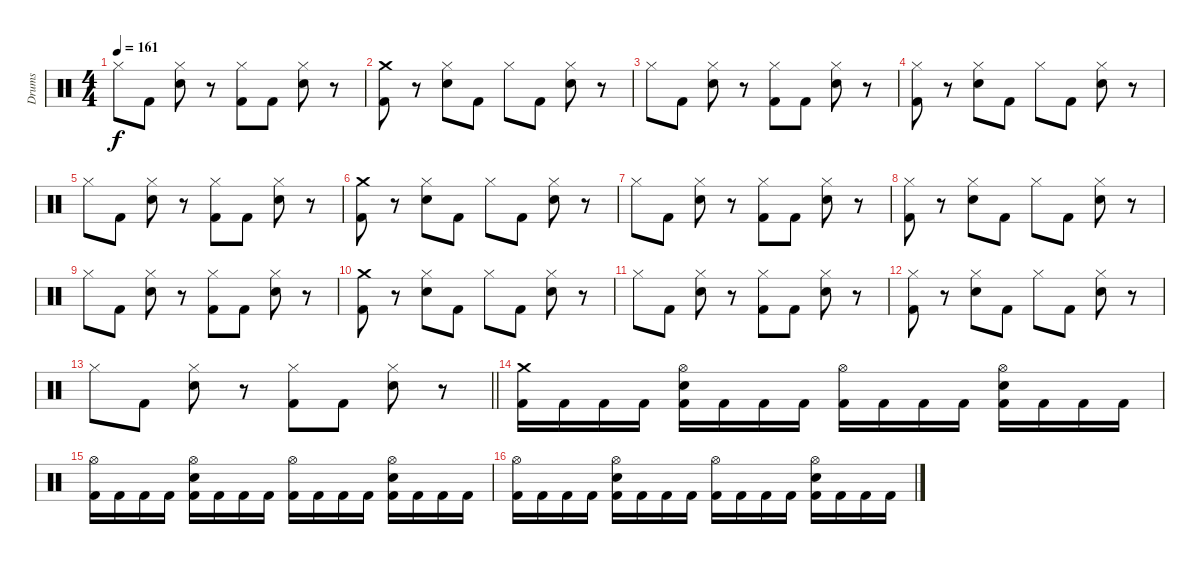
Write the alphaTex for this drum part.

\track ("Drums" "Drums") {instrument percussion}
\staff {score}
\articulation defaults
\ts (4 4)
\tempo 161
\clef neutral
\ks c "Hi-Hat (closed)".8{dy f} "Kick (hit) 2".8
("Hi-Hat (closed)" "Electric Snare (hit)").8 r.8 ("Hi-Hat (closed)" "Kick (hit) 2").8 "Kick (hit) 2".8 ("Hi-Hat (closed)" "Electric Snare (hit)").8 r.8 |
("Crash medium (hit)" "Kick (hit) 2").8 r.8 ("Hi-Hat (closed)" "Electric Snare (hit)").8 "Kick (hit) 2".8 "Hi-Hat (closed)".8 "Kick (hit) 2".8 ("Hi-Hat (closed)" "Electric Snare (hit)").8 r.8 |
"Hi-Hat (closed)".8 "Kick (hit) 2".8 ("Hi-Hat (closed)" "Electric Snare (hit)").8 r.8 ("Hi-Hat (closed)" "Kick (hit) 2").8 "Kick (hit) 2".8 ("Hi-Hat (closed)" "Electric Snare (hit)").8 r.8 |
("Hi-Hat (closed)" "Kick (hit) 2").8 r.8 ("Hi-Hat (closed)" "Electric Snare (hit)").8 "Kick (hit) 2".8 "Hi-Hat (closed)".8 "Kick (hit) 2".8 ("Hi-Hat (closed)" "Electric Snare (hit)").8 r.8 |
"Hi-Hat (closed)".8 "Kick (hit) 2".8 ("Hi-Hat (closed)" "Electric Snare (hit)").8 r.8 ("Hi-Hat (closed)" "Kick (hit) 2").8 "Kick (hit) 2".8 ("Hi-Hat (closed)" "Electric Snare (hit)").8 r.8 |
("Crash medium (hit)" "Kick (hit) 2").8 r.8 ("Hi-Hat (closed)" "Electric Snare (hit)").8 "Kick (hit) 2".8 "Hi-Hat (closed)".8 "Kick (hit) 2".8 ("Hi-Hat (closed)" "Electric Snare (hit)").8 r.8 |
"Hi-Hat (closed)".8 "Kick (hit) 2".8 ("Hi-Hat (closed)" "Electric Snare (hit)").8 r.8 ("Hi-Hat (closed)" "Kick (hit) 2").8 "Kick (hit) 2".8 ("Hi-Hat (closed)" "Electric Snare (hit)").8 r.8 |
("Hi-Hat (closed)" "Kick (hit) 2").8 r.8 ("Hi-Hat (closed)" "Electric Snare (hit)").8 "Kick (hit) 2".8 "Hi-Hat (closed)".8 "Kick (hit) 2".8 ("Hi-Hat (closed)" "Electric Snare (hit)").8 r.8 |
"Hi-Hat (closed)".8 "Kick (hit) 2".8 ("Hi-Hat (closed)" "Electric Snare (hit)").8 r.8 ("Hi-Hat (closed)" "Kick (hit) 2").8 "Kick (hit) 2".8 ("Hi-Hat (closed)" "Electric Snare (hit)").8 r.8 |
("Crash medium (hit)" "Kick (hit) 2").8 r.8 ("Hi-Hat (closed)" "Electric Snare (hit)").8 "Kick (hit) 2".8 "Hi-Hat (closed)".8 "Kick (hit) 2".8 ("Hi-Hat (closed)" "Electric Snare (hit)").8 r.8 |
"Hi-Hat (closed)".8 "Kick (hit) 2".8 ("Hi-Hat (closed)" "Electric Snare (hit)").8 r.8 ("Hi-Hat (closed)" "Kick (hit) 2").8 "Kick (hit) 2".8 ("Hi-Hat (closed)" "Electric Snare (hit)").8 r.8 |
("Hi-Hat (closed)" "Kick (hit) 2").8 r.8 ("Hi-Hat (closed)" "Electric Snare (hit)").8 "Kick (hit) 2".8 "Hi-Hat (closed)".8 "Kick (hit) 2".8 ("Hi-Hat (closed)" "Electric Snare (hit)").8 r.8 |
\barLineRight lightlight "Hi-Hat (closed)".8 "Kick (hit) 2".8
("Hi-Hat (closed)" "Electric Snare (hit)").8 r.8 ("Hi-Hat (closed)" "Kick (hit) 2").8 "Kick (hit) 2".8 ("Hi-Hat (closed)" "Electric Snare (hit)").8 r.8 |
\section ("" "")
("Crash medium (hit)" "Kick (hit) 2").16 "Kick (hit) 2".16 "Kick (hit) 2".16 "Kick (hit) 2".16 ("Hi-Hat (open)" "Electric Snare (hit)" "Kick (hit) 2").16 "Kick (hit) 2".16 "Kick (hit) 2".16 "Kick (hit) 2".16 ("Hi-Hat (open)" "Kick (hit) 2").16 "Kick (hit) 2".16 "Kick (hit) 2".16 "Kick (hit) 2".16 ("Hi-Hat (open)" "Electric Snare (hit)" "Kick (hit) 2").16 "Kick (hit) 2".16 "Kick (hit) 2".16 "Kick (hit) 2".16 |
("Hi-Hat (open)" "Kick (hit) 2").16 "Kick (hit) 2".16 "Kick (hit) 2".16 "Kick (hit) 2".16 ("Hi-Hat (open)" "Electric Snare (hit)" "Kick (hit) 2").16 "Kick (hit) 2".16 "Kick (hit) 2".16 "Kick (hit) 2".16 ("Hi-Hat (open)" "Kick (hit) 2").16 "Kick (hit) 2".16 "Kick (hit) 2".16 "Kick (hit) 2".16 ("Hi-Hat (open)" "Electric Snare (hit)" "Kick (hit) 2").16 "Kick (hit) 2".16 "Kick (hit) 2".16 "Kick (hit) 2".16 |
("Hi-Hat (open)" "Kick (hit) 2").16 "Kick (hit) 2".16 "Kick (hit) 2".16 "Kick (hit) 2".16 ("Hi-Hat (open)" "Electric Snare (hit)" "Kick (hit) 2").16 "Kick (hit) 2".16 "Kick (hit) 2".16 "Kick (hit) 2".16 ("Hi-Hat (open)" "Kick (hit) 2").16 "Kick (hit) 2".16 "Kick (hit) 2".16 "Kick (hit) 2".16 ("Hi-Hat (open)" "Electric Snare (hit)" "Kick (hit) 2").16 "Kick (hit) 2".16 "Kick (hit) 2".16 "Kick (hit) 2".16
